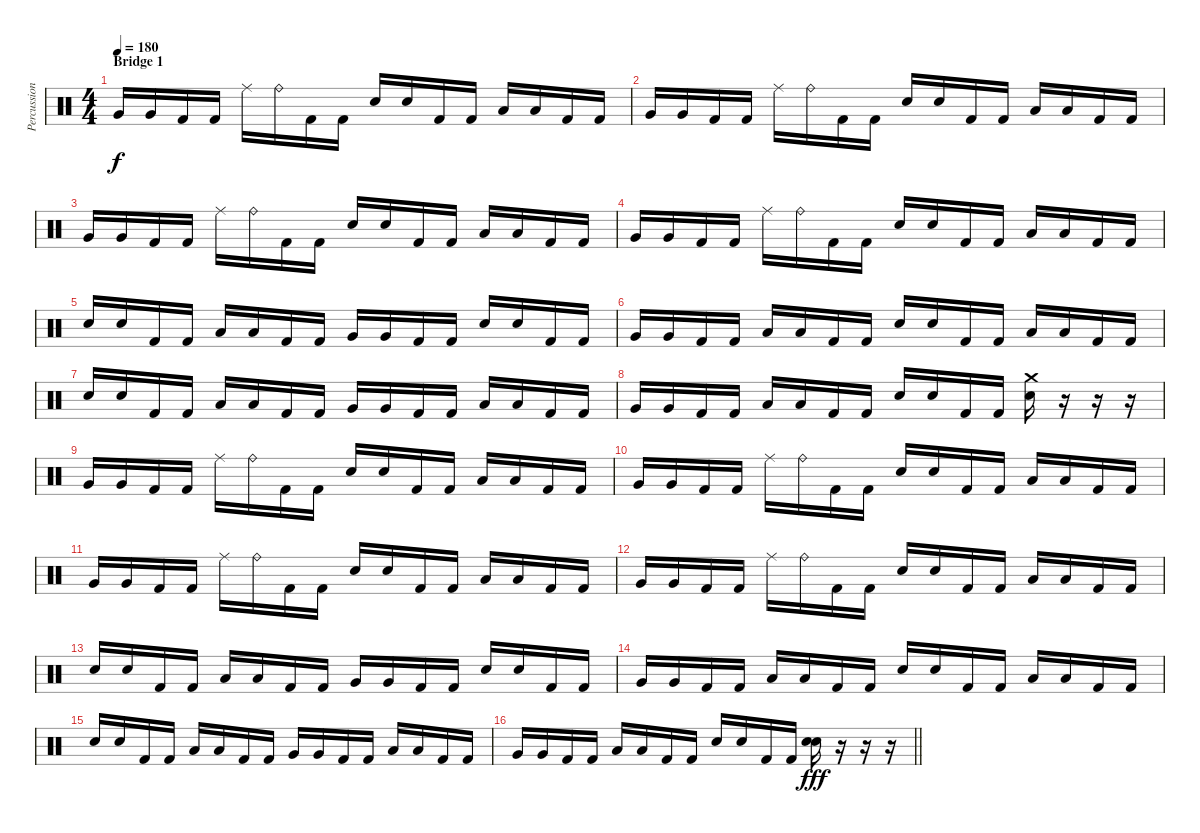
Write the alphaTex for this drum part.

\track ("Percussion" "Percussion") {instrument percussion}
\staff {score}
\articulation defaults
\ts (4 4)
\section ("" "Bridge 1")
\tempo 180
\clef neutral
\ks c "Very Low Tom (hit)".16{dy f} "Very Low Tom (hit)".16 "Kick (hit) 2".16 "Kick (hit) 2".16 "Ride (middle)".16 "Ride (bell)".16 "Kick (hit) 2".16 "Kick (hit) 2".16 "Electric Snare (hit)".16 "Electric Snare (hit)".16 "Kick (hit) 2".16 "Kick (hit) 2".16 "Low Tom (hit)".16 "Low Tom (hit)".16 "Kick (hit) 2".16 "Kick (hit) 2".16
|
"Very Low Tom (hit)".16 "Very Low Tom (hit)".16 "Kick (hit) 2".16 "Kick (hit) 2".16 "Ride (middle)".16 "Ride (bell)".16 "Kick (hit) 2".16 "Kick (hit) 2".16 "Electric Snare (hit)".16 "Electric Snare (hit)".16 "Kick (hit) 2".16 "Kick (hit) 2".16 "Low Tom (hit)".16 "Low Tom (hit)".16 "Kick (hit) 2".16 "Kick (hit) 2".16 |
"Very Low Tom (hit)".16 "Very Low Tom (hit)".16 "Kick (hit) 2".16 "Kick (hit) 2".16 "Ride (middle)".16 "Ride (bell)".16 "Kick (hit) 2".16 "Kick (hit) 2".16 "Electric Snare (hit)".16 "Electric Snare (hit)".16 "Kick (hit) 2".16 "Kick (hit) 2".16 "Low Tom (hit)".16 "Low Tom (hit)".16 "Kick (hit) 2".16 "Kick (hit) 2".16 |
"Very Low Tom (hit)".16 "Very Low Tom (hit)".16 "Kick (hit) 2".16 "Kick (hit) 2".16 "Ride (middle)".16 "Ride (bell)".16 "Kick (hit) 2".16 "Kick (hit) 2".16 "Electric Snare (hit)".16 "Electric Snare (hit)".16 "Kick (hit) 2".16 "Kick (hit) 2".16 "Low Tom (hit)".16 "Low Tom (hit)".16 "Kick (hit) 2".16 "Kick (hit) 2".16 |
"Electric Snare (hit)".16 "Electric Snare (hit)".16 "Kick (hit) 2".16 "Kick (hit) 2".16 "Low Tom (hit)".16 "Low Tom (hit)".16 "Kick (hit) 2".16 "Kick (hit) 2".16 "Very Low Tom (hit)".16 "Very Low Tom (hit)".16 "Kick (hit) 2".16 "Kick (hit) 2".16 "Electric Snare (hit)".16 "Electric Snare (hit)".16 "Kick (hit) 2".16 "Kick (hit) 2".16 |
"Very Low Tom (hit)".16 "Very Low Tom (hit)".16 "Kick (hit) 2".16 "Kick (hit) 2".16 "Low Floor Tom (hit)".16 "Low Floor Tom (hit)".16 "Kick (hit) 2".16 "Kick (hit) 2".16 "Electric Snare (hit)".16 "Electric Snare (hit)".16 "Kick (hit) 2".16 "Kick (hit) 2".16 "Low Floor Tom (hit)".16 "Low Floor Tom (hit)".16 "Kick (hit) 2".16 "Kick (hit) 2".16 |
"Electric Snare (hit)".16 "Electric Snare (hit)".16 "Kick (hit) 2".16 "Kick (hit) 2".16 "Low Tom (hit)".16 "Low Tom (hit)".16 "Kick (hit) 2".16 "Kick (hit) 2".16 "Very Low Tom (hit)".16 "Very Low Tom (hit)".16 "Kick (hit) 2".16 "Kick (hit) 2".16 "Low Floor Tom (hit)".16 "Low Floor Tom (hit)".16 "Kick (hit) 2".16 "Kick (hit) 2".16 |
"Very Low Tom (hit)".16 "Very Low Tom (hit)".16 "Kick (hit) 2".16 "Kick (hit) 2".16 "Low Tom (hit)".16 "Low Tom (hit)".16 "Kick (hit) 2".16 "Kick (hit) 2".16 "Electric Snare (hit)".16 "Electric Snare (hit)".16 "Kick (hit) 2".16 "Kick (hit) 2".16 ("Crash medium (hit)" "Electric Snare (hit)").16 r.16 r.16 r.16 |
"Very Low Tom (hit)".16 "Very Low Tom (hit)".16 "Kick (hit) 2".16 "Kick (hit) 2".16 "Ride (middle)".16 "Ride (bell)".16 "Kick (hit) 2".16 "Kick (hit) 2".16 "Electric Snare (hit)".16 "Electric Snare (hit)".16 "Kick (hit) 2".16 "Kick (hit) 2".16 "Low Tom (hit)".16 "Low Tom (hit)".16 "Kick (hit) 2".16 "Kick (hit) 2".16 |
"Very Low Tom (hit)".16 "Very Low Tom (hit)".16 "Kick (hit) 2".16 "Kick (hit) 2".16 "Ride (middle)".16 "Ride (bell)".16 "Kick (hit) 2".16 "Kick (hit) 2".16 "Electric Snare (hit)".16 "Electric Snare (hit)".16 "Kick (hit) 2".16 "Kick (hit) 2".16 "Low Tom (hit)".16 "Low Tom (hit)".16 "Kick (hit) 2".16 "Kick (hit) 2".16 |
"Very Low Tom (hit)".16 "Very Low Tom (hit)".16 "Kick (hit) 2".16 "Kick (hit) 2".16 "Ride (middle)".16 "Ride (bell)".16 "Kick (hit) 2".16 "Kick (hit) 2".16 "Electric Snare (hit)".16 "Electric Snare (hit)".16 "Kick (hit) 2".16 "Kick (hit) 2".16 "Low Tom (hit)".16 "Low Tom (hit)".16 "Kick (hit) 2".16 "Kick (hit) 2".16 |
"Very Low Tom (hit)".16 "Very Low Tom (hit)".16 "Kick (hit) 2".16 "Kick (hit) 2".16 "Ride (middle)".16 "Ride (bell)".16 "Kick (hit) 2".16 "Kick (hit) 2".16 "Electric Snare (hit)".16 "Electric Snare (hit)".16 "Kick (hit) 2".16 "Kick (hit) 2".16 "Low Tom (hit)".16 "Low Tom (hit)".16 "Kick (hit) 2".16 "Kick (hit) 2".16 |
"Electric Snare (hit)".16 "Electric Snare (hit)".16 "Kick (hit) 2".16 "Kick (hit) 2".16 "Low Tom (hit)".16 "Low Tom (hit)".16 "Kick (hit) 2".16 "Kick (hit) 2".16 "Very Low Tom (hit)".16 "Very Low Tom (hit)".16 "Kick (hit) 2".16 "Kick (hit) 2".16 "Electric Snare (hit)".16 "Electric Snare (hit)".16 "Kick (hit) 2".16 "Kick (hit) 2".16 |
"Very Low Tom (hit)".16 "Very Low Tom (hit)".16 "Kick (hit) 2".16 "Kick (hit) 2".16 "Low Floor Tom (hit)".16 "Low Floor Tom (hit)".16 "Kick (hit) 2".16 "Kick (hit) 2".16 "Electric Snare (hit)".16 "Electric Snare (hit)".16 "Kick (hit) 2".16 "Kick (hit) 2".16 "Low Floor Tom (hit)".16 "Low Floor Tom (hit)".16 "Kick (hit) 2".16 "Kick (hit) 2".16 |
"Electric Snare (hit)".16 "Electric Snare (hit)".16 "Kick (hit) 2".16 "Kick (hit) 2".16 "Low Tom (hit)".16 "Low Tom (hit)".16 "Kick (hit) 2".16 "Kick (hit) 2".16 "Very Low Tom (hit)".16 "Very Low Tom (hit)".16 "Kick (hit) 2".16 "Kick (hit) 2".16 "Low Floor Tom (hit)".16 "Low Floor Tom (hit)".16 "Kick (hit) 2".16 "Kick (hit) 2".16 |
\barLineRight lightlight "Very Low Tom (hit)".16 "Very Low Tom (hit)".16 "Kick (hit) 2".16 "Kick (hit) 2".16 "Low Tom (hit)".16 "Low Tom (hit)".16 "Kick (hit) 2".16 "Kick (hit) 2".16 "Electric Snare (hit)".16 "Electric Snare (hit)".16 "Kick (hit) 2".16 "Kick (hit) 2".16
("Electric Snare (hit)" "Electric Snare (hit)").16{dy fff} r.16 r.16 r.16
